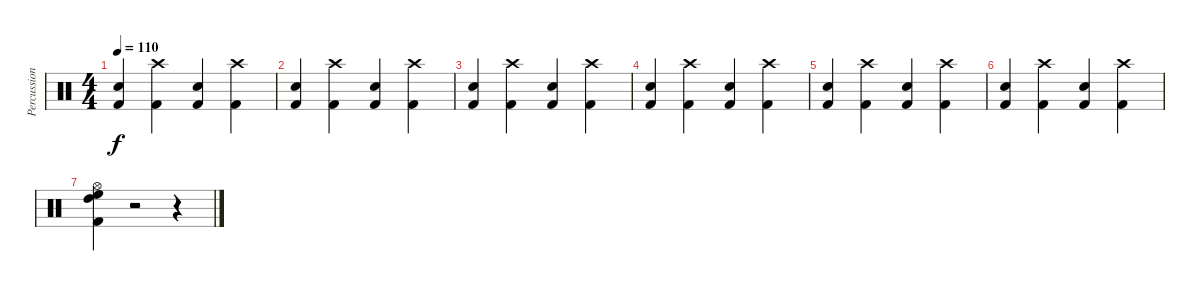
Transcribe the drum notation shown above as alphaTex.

\track ("Percussion" "Percussion") {instrument percussion}
\staff {score}
\articulation defaults
\ts (4 4)
\tempo 110
\clef neutral
\ks c
("Snare (hit) 2" "Kick (hit) 2").4{dy f} ("Crash high (hit)" "Kick (hit) 2").4 ("Snare (hit) 2" "Kick (hit) 2").4 ("Crash high (hit)" "Kick (hit) 2").4 |
("Snare (hit) 2" "Kick (hit) 2").4 ("Crash high (hit)" "Kick (hit) 2").4 ("Snare (hit) 2" "Kick (hit) 2").4 ("Crash high (hit)" "Kick (hit) 2").4 |
("Snare (hit) 2" "Kick (hit) 2").4 ("Crash high (hit)" "Kick (hit) 2").4 ("Snare (hit) 2" "Kick (hit) 2").4 ("Crash high (hit)" "Kick (hit) 2").4 |
("Snare (hit) 2" "Kick (hit) 2").4 ("Crash high (hit)" "Kick (hit) 2").4 ("Snare (hit) 2" "Kick (hit) 2").4 ("Crash high (hit)" "Kick (hit) 2").4 |
("Snare (hit) 2" "Kick (hit) 2").4 ("Crash high (hit)" "Kick (hit) 2").4 ("Snare (hit) 2" "Kick (hit) 2").4 ("Crash high (hit)" "Kick (hit) 2").4 |
("Snare (hit) 2" "Kick (hit) 2").4 ("Crash high (hit)" "Kick (hit) 2").4 ("Snare (hit) 2" "Kick (hit) 2").4 ("Crash high (hit)" "Kick (hit) 2").4 |
("High Floor Tom (hit)" "High Tom (hit)" "Hi-Hat (open)" "Kick (hit) 2").4 r.2 r.4
